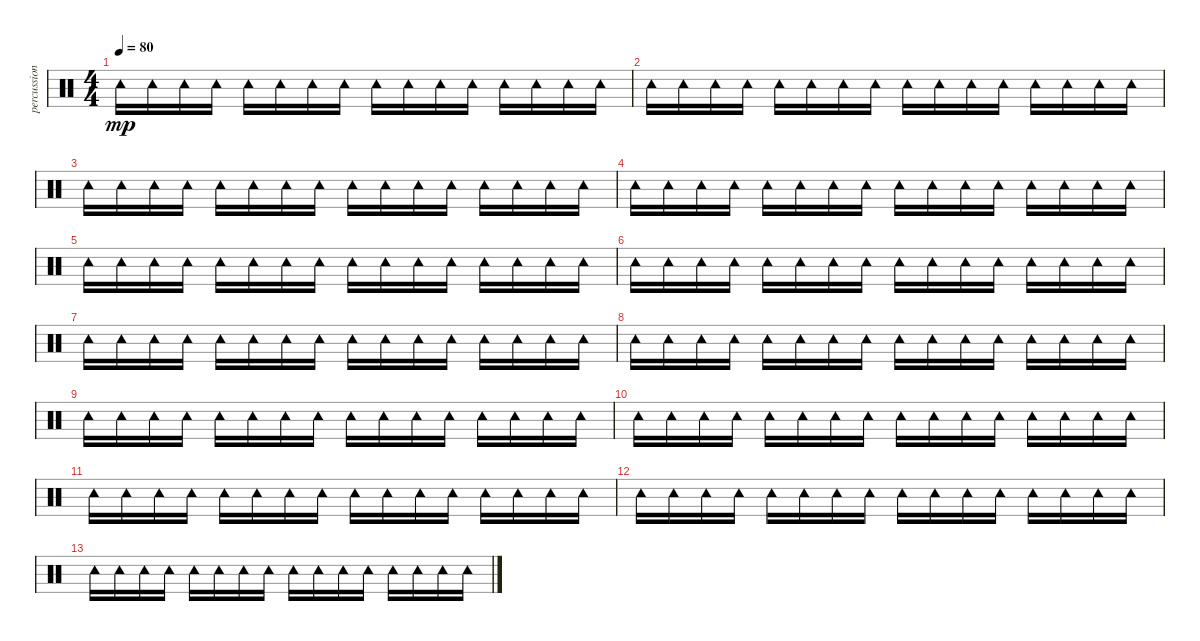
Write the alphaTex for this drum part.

\track ("percussion" "percussion") {instrument percussion}
\staff {score}
\articulation defaults
\ts (4 4)
\tempo 80
\clef neutral
\ks c "Tambourine (hit)".16{dy mp} "Tambourine (hit)".16 "Tambourine (hit)".16 "Tambourine (hit)".16 "Tambourine (hit)".16 "Tambourine (hit)".16 "Tambourine (hit)".16 "Tambourine (hit)".16 "Tambourine (hit)".16 "Tambourine (hit)".16 "Tambourine (hit)".16 "Tambourine (hit)".16 "Tambourine (hit)".16 "Tambourine (hit)".16 "Tambourine (hit)".16 "Tambourine (hit)".16
|
"Tambourine (hit)".16 "Tambourine (hit)".16 "Tambourine (hit)".16 "Tambourine (hit)".16 "Tambourine (hit)".16 "Tambourine (hit)".16 "Tambourine (hit)".16 "Tambourine (hit)".16 "Tambourine (hit)".16 "Tambourine (hit)".16 "Tambourine (hit)".16 "Tambourine (hit)".16 "Tambourine (hit)".16 "Tambourine (hit)".16 "Tambourine (hit)".16 "Tambourine (hit)".16 |
"Tambourine (hit)".16 "Tambourine (hit)".16 "Tambourine (hit)".16 "Tambourine (hit)".16 "Tambourine (hit)".16 "Tambourine (hit)".16 "Tambourine (hit)".16 "Tambourine (hit)".16 "Tambourine (hit)".16 "Tambourine (hit)".16 "Tambourine (hit)".16 "Tambourine (hit)".16 "Tambourine (hit)".16 "Tambourine (hit)".16 "Tambourine (hit)".16 "Tambourine (hit)".16 |
"Tambourine (hit)".16 "Tambourine (hit)".16 "Tambourine (hit)".16 "Tambourine (hit)".16 "Tambourine (hit)".16 "Tambourine (hit)".16 "Tambourine (hit)".16 "Tambourine (hit)".16 "Tambourine (hit)".16 "Tambourine (hit)".16 "Tambourine (hit)".16 "Tambourine (hit)".16 "Tambourine (hit)".16 "Tambourine (hit)".16 "Tambourine (hit)".16 "Tambourine (hit)".16 |
"Tambourine (hit)".16 "Tambourine (hit)".16 "Tambourine (hit)".16 "Tambourine (hit)".16 "Tambourine (hit)".16 "Tambourine (hit)".16 "Tambourine (hit)".16 "Tambourine (hit)".16 "Tambourine (hit)".16 "Tambourine (hit)".16 "Tambourine (hit)".16 "Tambourine (hit)".16 "Tambourine (hit)".16 "Tambourine (hit)".16 "Tambourine (hit)".16 "Tambourine (hit)".16 |
"Tambourine (hit)".16 "Tambourine (hit)".16 "Tambourine (hit)".16 "Tambourine (hit)".16 "Tambourine (hit)".16 "Tambourine (hit)".16 "Tambourine (hit)".16 "Tambourine (hit)".16 "Tambourine (hit)".16 "Tambourine (hit)".16 "Tambourine (hit)".16 "Tambourine (hit)".16 "Tambourine (hit)".16 "Tambourine (hit)".16 "Tambourine (hit)".16 "Tambourine (hit)".16 |
"Tambourine (hit)".16 "Tambourine (hit)".16 "Tambourine (hit)".16 "Tambourine (hit)".16 "Tambourine (hit)".16 "Tambourine (hit)".16 "Tambourine (hit)".16 "Tambourine (hit)".16 "Tambourine (hit)".16 "Tambourine (hit)".16 "Tambourine (hit)".16 "Tambourine (hit)".16 "Tambourine (hit)".16 "Tambourine (hit)".16 "Tambourine (hit)".16 "Tambourine (hit)".16 |
"Tambourine (hit)".16 "Tambourine (hit)".16 "Tambourine (hit)".16 "Tambourine (hit)".16 "Tambourine (hit)".16 "Tambourine (hit)".16 "Tambourine (hit)".16 "Tambourine (hit)".16 "Tambourine (hit)".16 "Tambourine (hit)".16 "Tambourine (hit)".16 "Tambourine (hit)".16 "Tambourine (hit)".16 "Tambourine (hit)".16 "Tambourine (hit)".16 "Tambourine (hit)".16 |
"Tambourine (hit)".16 "Tambourine (hit)".16 "Tambourine (hit)".16 "Tambourine (hit)".16 "Tambourine (hit)".16 "Tambourine (hit)".16 "Tambourine (hit)".16 "Tambourine (hit)".16 "Tambourine (hit)".16 "Tambourine (hit)".16 "Tambourine (hit)".16 "Tambourine (hit)".16 "Tambourine (hit)".16 "Tambourine (hit)".16 "Tambourine (hit)".16 "Tambourine (hit)".16 |
"Tambourine (hit)".16 "Tambourine (hit)".16 "Tambourine (hit)".16 "Tambourine (hit)".16 "Tambourine (hit)".16 "Tambourine (hit)".16 "Tambourine (hit)".16 "Tambourine (hit)".16 "Tambourine (hit)".16 "Tambourine (hit)".16 "Tambourine (hit)".16 "Tambourine (hit)".16 "Tambourine (hit)".16 "Tambourine (hit)".16 "Tambourine (hit)".16 "Tambourine (hit)".16 |
"Tambourine (hit)".16 "Tambourine (hit)".16 "Tambourine (hit)".16 "Tambourine (hit)".16 "Tambourine (hit)".16 "Tambourine (hit)".16 "Tambourine (hit)".16 "Tambourine (hit)".16 "Tambourine (hit)".16 "Tambourine (hit)".16 "Tambourine (hit)".16 "Tambourine (hit)".16 "Tambourine (hit)".16 "Tambourine (hit)".16 "Tambourine (hit)".16 "Tambourine (hit)".16 |
"Tambourine (hit)".16 "Tambourine (hit)".16 "Tambourine (hit)".16 "Tambourine (hit)".16 "Tambourine (hit)".16 "Tambourine (hit)".16 "Tambourine (hit)".16 "Tambourine (hit)".16 "Tambourine (hit)".16 "Tambourine (hit)".16 "Tambourine (hit)".16 "Tambourine (hit)".16 "Tambourine (hit)".16 "Tambourine (hit)".16 "Tambourine (hit)".16 "Tambourine (hit)".16 |
"Tambourine (hit)".16 "Tambourine (hit)".16 "Tambourine (hit)".16 "Tambourine (hit)".16 "Tambourine (hit)".16 "Tambourine (hit)".16 "Tambourine (hit)".16 "Tambourine (hit)".16 "Tambourine (hit)".16 "Tambourine (hit)".16 "Tambourine (hit)".16 "Tambourine (hit)".16 "Tambourine (hit)".16 "Tambourine (hit)".16 "Tambourine (hit)".16 "Tambourine (hit)".16
